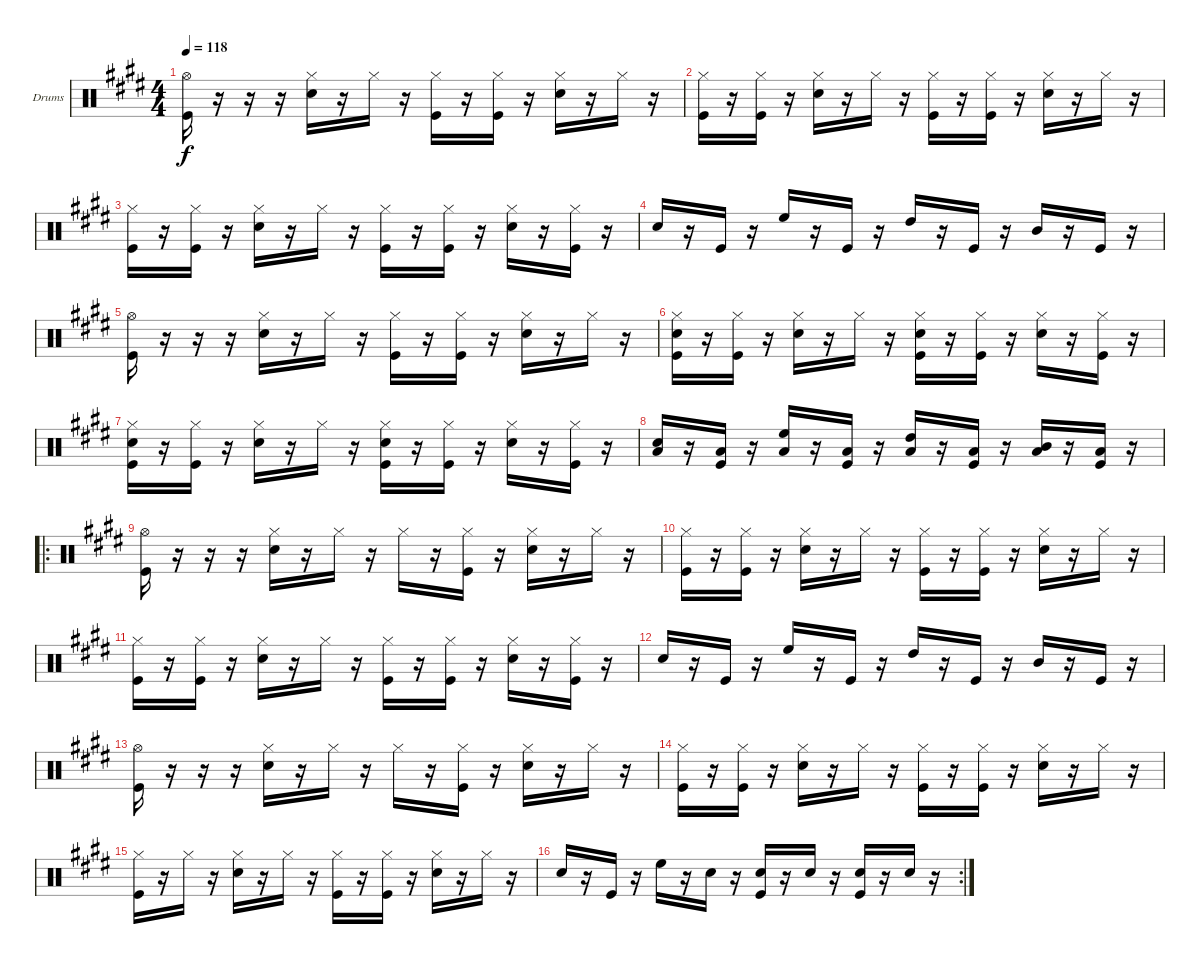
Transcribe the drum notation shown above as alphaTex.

\bracketExtendMode groupsimilarinstruments
\firstSystemTrackNameOrientation horizontal
\otherSystemsTrackNameOrientation horizontal
\track ("Drumkit" "Drums") {instrument percussion}
\staff {score}
\articulation defaults
\ts (4 4)
\tempo 118
\clef neutral
\ks e
("Hi-Hat (open)" "Kick (hit)").16{dy f} r.16 r.16 r.16 ("Hi-Hat (closed)" "Snare (hit) 2").16 r.16 "Hi-Hat (closed)".16 r.16 ("Hi-Hat (closed)" "Kick (hit)").16 r.16 ("Hi-Hat (closed)" "Kick (hit)").16 r.16 ("Hi-Hat (closed)" "Snare (hit) 2").16 r.16 "Hi-Hat (closed)".16 r.16 |
("Hi-Hat (closed)" "Kick (hit)").16 r.16 ("Hi-Hat (closed)" "Kick (hit)").16 r.16 ("Hi-Hat (closed)" "Snare (hit) 2").16 r.16 "Hi-Hat (closed)".16 r.16 ("Hi-Hat (closed)" "Kick (hit)").16 r.16 ("Hi-Hat (closed)" "Kick (hit)").16 r.16 ("Hi-Hat (closed)" "Snare (hit) 2").16 r.16 "Hi-Hat (closed)".16 r.16 |
("Hi-Hat (closed)" "Kick (hit)").16 r.16 ("Hi-Hat (closed)" "Kick (hit)").16 r.16 ("Hi-Hat (closed)" "Snare (hit) 2").16 r.16 "Hi-Hat (closed)".16 r.16 ("Hi-Hat (closed)" "Kick (hit)").16 r.16 ("Hi-Hat (closed)" "Kick (hit)").16 r.16 ("Hi-Hat (closed)" "Snare (hit) 2").16 r.16 ("Hi-Hat (closed)" "Kick (hit)").16 r.16 |
"Snare (hit) 2".16 r.16 "Kick (hit)".16 r.16 "High Floor Tom (hit)".16 r.16 "Kick (hit)".16 r.16 "High Tom (hit)".16 r.16 "Kick (hit)".16 r.16 "Mid Tom (hit)".16 r.16 "Kick (hit)".16 r.16 |
("Hi-Hat (open)" "Kick (hit)").16 r.16 r.16 r.16 ("Hi-Hat (closed)" "Snare (hit) 2").16 r.16 "Hi-Hat (closed)".16 r.16 ("Hi-Hat (closed)" "Kick (hit)").16 r.16 ("Hi-Hat (closed)" "Kick (hit)").16 r.16 ("Hi-Hat (closed)" "Snare (hit) 2").16 r.16 "Hi-Hat (closed)".16 r.16 |
("Hi-Hat (closed)" "Snare (hit) 2" "Kick (hit)").16 r.16 ("Hi-Hat (closed)" "Kick (hit)").16 r.16 ("Hi-Hat (closed)" "Snare (hit) 2").16 r.16 "Hi-Hat (closed)".16 r.16 ("Hi-Hat (closed)" "Snare (hit) 2" "Kick (hit)").16 r.16 ("Hi-Hat (closed)" "Kick (hit)").16 r.16 ("Hi-Hat (closed)" "Snare (hit) 2").16 r.16 ("Hi-Hat (closed)" "Kick (hit)").16 r.16 |
("Hi-Hat (closed)" "Snare (hit) 2" "Kick (hit)").16 r.16 ("Hi-Hat (closed)" "Kick (hit)").16 r.16 ("Hi-Hat (closed)" "Snare (hit) 2").16 r.16 "Hi-Hat (closed)".16 r.16 ("Hi-Hat (closed)" "Snare (hit) 2" "Kick (hit)").16 r.16 ("Hi-Hat (closed)" "Kick (hit)").16 r.16 ("Hi-Hat (closed)" "Snare (hit) 2").16 r.16 ("Hi-Hat (closed)" "Kick (hit)").16 r.16 |
("Snare (hit) 2" "Low Tom (hit)").16 r.16 ("Low Tom (hit)" "Kick (hit)").16 r.16 ("High Floor Tom (hit)" "Low Tom (hit)").16 r.16 ("Low Tom (hit)" "Kick (hit)").16 r.16 ("High Tom (hit)" "Low Tom (hit)").16 r.16 ("Low Tom (hit)" "Kick (hit)").16 r.16 ("Mid Tom (hit)" "Low Tom (hit)").16 r.16 ("Low Tom (hit)" "Kick (hit)").16 r.16 |
\ro
("Hi-Hat (open)" "Kick (hit)").16 r.16 r.16 r.16 ("Hi-Hat (closed)" "Snare (hit) 2").16 r.16 "Hi-Hat (closed)".16 r.16 "Hi-Hat (closed)".16 r.16 ("Hi-Hat (closed)" "Kick (hit)").16 r.16 ("Hi-Hat (closed)" "Snare (hit) 2").16 r.16 "Hi-Hat (closed)".16 r.16 |
("Hi-Hat (closed)" "Kick (hit)").16 r.16 ("Hi-Hat (closed)" "Kick (hit)").16 r.16 ("Hi-Hat (closed)" "Snare (hit) 2").16 r.16 "Hi-Hat (closed)".16 r.16 ("Hi-Hat (closed)" "Kick (hit)").16 r.16 ("Hi-Hat (closed)" "Kick (hit)").16 r.16 ("Hi-Hat (closed)" "Snare (hit) 2").16 r.16 "Hi-Hat (closed)".16 r.16 |
("Hi-Hat (closed)" "Kick (hit)").16 r.16 ("Hi-Hat (closed)" "Kick (hit)").16 r.16 ("Hi-Hat (closed)" "Snare (hit) 2").16 r.16 "Hi-Hat (closed)".16 r.16 ("Hi-Hat (closed)" "Kick (hit)").16 r.16 ("Hi-Hat (closed)" "Kick (hit)").16 r.16 ("Hi-Hat (closed)" "Snare (hit) 2").16 r.16 ("Hi-Hat (closed)" "Kick (hit)").16 r.16 |
"Snare (hit) 2".16 r.16 "Kick (hit)".16 r.16 "High Floor Tom (hit)".16 r.16 "Kick (hit)".16 r.16 "High Tom (hit)".16 r.16 "Kick (hit)".16 r.16 "Mid Tom (hit)".16 r.16 "Kick (hit)".16 r.16 |
("Hi-Hat (open)" "Kick (hit)").16 r.16 r.16 r.16 ("Hi-Hat (closed)" "Snare (hit) 2").16 r.16 "Hi-Hat (closed)".16 r.16 "Hi-Hat (closed)".16 r.16 ("Hi-Hat (closed)" "Kick (hit)").16 r.16 ("Hi-Hat (closed)" "Snare (hit) 2").16 r.16 "Hi-Hat (closed)".16 r.16 |
("Hi-Hat (closed)" "Kick (hit)").16 r.16 ("Hi-Hat (closed)" "Kick (hit)").16 r.16 ("Hi-Hat (closed)" "Snare (hit) 2").16 r.16 "Hi-Hat (closed)".16 r.16 ("Hi-Hat (closed)" "Kick (hit)").16 r.16 ("Hi-Hat (closed)" "Kick (hit)").16 r.16 ("Hi-Hat (closed)" "Snare (hit) 2").16 r.16 "Hi-Hat (closed)".16 r.16 |
("Hi-Hat (closed)" "Kick (hit)").16 r.16 "Hi-Hat (closed)".16 r.16 ("Hi-Hat (closed)" "Snare (hit) 2").16 r.16 "Hi-Hat (closed)".16 r.16 ("Hi-Hat (closed)" "Kick (hit)").16 r.16 ("Hi-Hat (closed)" "Kick (hit)").16 r.16 ("Hi-Hat (closed)" "Snare (hit) 2").16 r.16 "Hi-Hat (closed)".16 r.16 |
\rc 2 "Snare (hit) 2".16
r.16 "Kick (hit)".16 r.16 "High Floor Tom (hit)".16 r.16 "Snare (hit) 2".16 r.16 ("Snare (hit) 2" "Kick (hit)").16 r.16 "Snare (hit) 2".16 r.16 ("Snare (hit) 2" "Kick (hit)").16 r.16 "Snare (hit) 2".16 r.16
